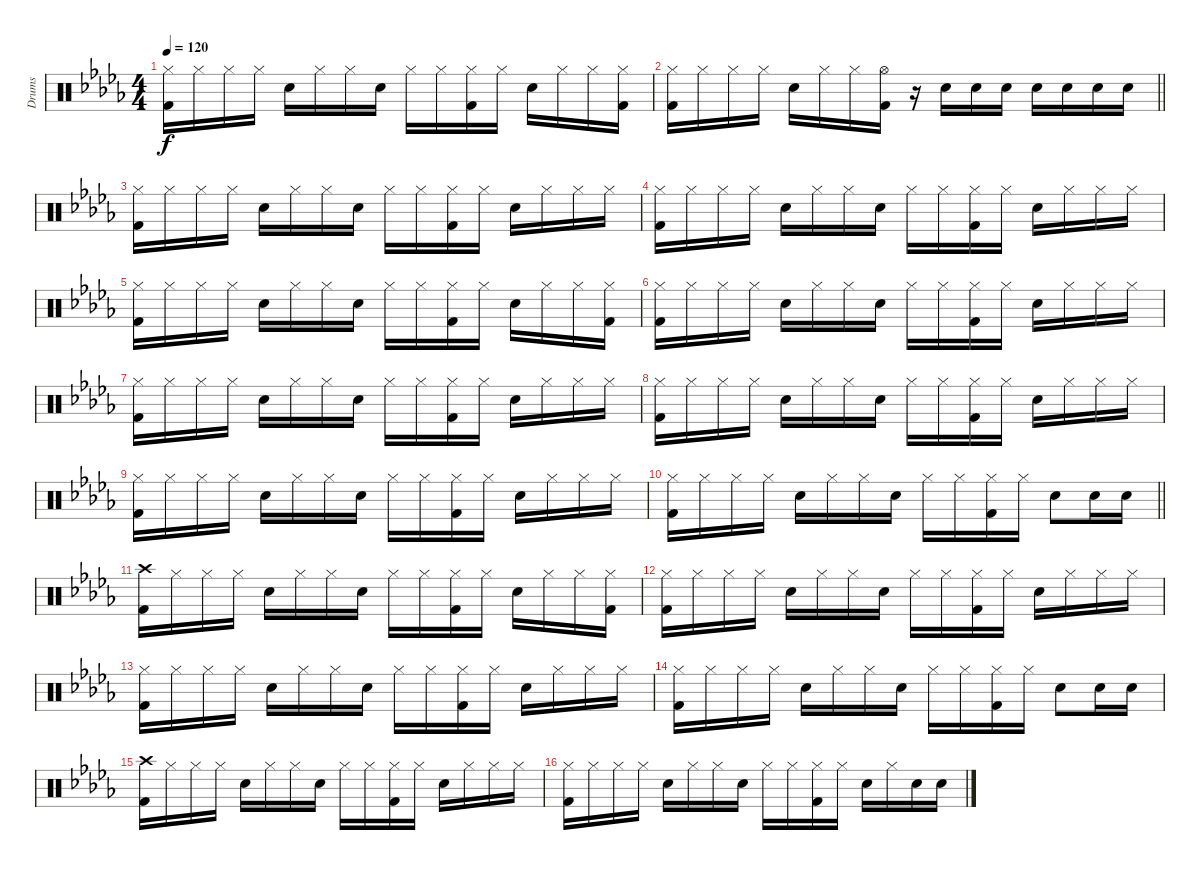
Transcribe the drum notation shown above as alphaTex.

\track ("Drums" "Drums") {instrument percussion}
\staff {score}
\articulation defaults
\ts (4 4)
\tempo 120
\clef neutral
\ks db
("Hi-Hat (closed)" "Kick (hit) 2").16{dy f} "Hi-Hat (closed)".16 "Hi-Hat (closed)".16 "Hi-Hat (closed)".16 "Snare (hit) 2".16 "Hi-Hat (closed)".16 "Hi-Hat (closed)".16 "Snare (hit) 2".16 "Hi-Hat (closed)".16 "Hi-Hat (closed)".16 ("Hi-Hat (closed)" "Kick (hit) 2").16 "Hi-Hat (closed)".16 "Snare (hit) 2".16 "Hi-Hat (closed)".16 "Hi-Hat (closed)".16 ("Hi-Hat (closed)" "Kick (hit) 2").16 |
\barLineRight lightlight
("Hi-Hat (closed)" "Kick (hit) 2").16 "Hi-Hat (closed)".16 "Hi-Hat (closed)".16 "Hi-Hat (closed)".16 "Snare (hit) 2".16 "Hi-Hat (closed)".16 "Hi-Hat (closed)".16 ("Hi-Hat (open)" "Kick (hit) 2").16 r.16 "Snare (hit) 2".16 "Snare (hit) 2".16 "Snare (hit) 2".16 "Snare (hit) 2".16 "Snare (hit) 2".16 "Snare (hit) 2".16 "Snare (hit) 2".16 |
("Hi-Hat (closed)" "Kick (hit) 2").16 "Hi-Hat (closed)".16 "Hi-Hat (closed)".16 "Hi-Hat (closed)".16 "Snare (hit) 2".16 "Hi-Hat (closed)".16 "Hi-Hat (closed)".16 "Snare (hit) 2".16 "Hi-Hat (closed)".16 "Hi-Hat (closed)".16 ("Hi-Hat (closed)" "Kick (hit) 2").16 "Hi-Hat (closed)".16 "Snare (hit) 2".16 "Hi-Hat (closed)".16 "Hi-Hat (closed)".16 "Hi-Hat (closed)".16 |
("Hi-Hat (closed)" "Kick (hit) 2").16 "Hi-Hat (closed)".16 "Hi-Hat (closed)".16 "Hi-Hat (closed)".16 "Snare (hit) 2".16 "Hi-Hat (closed)".16 "Hi-Hat (closed)".16 "Snare (hit) 2".16 "Hi-Hat (closed)".16 "Hi-Hat (closed)".16 ("Hi-Hat (closed)" "Kick (hit) 2").16 "Hi-Hat (closed)".16 "Snare (hit) 2".16 "Hi-Hat (closed)".16 "Hi-Hat (closed)".16 "Hi-Hat (closed)".16 |
("Hi-Hat (closed)" "Kick (hit) 2").16 "Hi-Hat (closed)".16 "Hi-Hat (closed)".16 "Hi-Hat (closed)".16 "Snare (hit) 2".16 "Hi-Hat (closed)".16 "Hi-Hat (closed)".16 "Snare (hit) 2".16 "Hi-Hat (closed)".16 "Hi-Hat (closed)".16 ("Hi-Hat (closed)" "Kick (hit) 2").16 "Hi-Hat (closed)".16 "Snare (hit) 2".16 "Hi-Hat (closed)".16 "Hi-Hat (closed)".16 ("Hi-Hat (closed)" "Kick (hit) 2").16 |
("Hi-Hat (closed)" "Kick (hit) 2").16 "Hi-Hat (closed)".16 "Hi-Hat (closed)".16 "Hi-Hat (closed)".16 "Snare (hit) 2".16 "Hi-Hat (closed)".16 "Hi-Hat (closed)".16 "Snare (hit) 2".16 "Hi-Hat (closed)".16 "Hi-Hat (closed)".16 ("Hi-Hat (closed)" "Kick (hit) 2").16 "Hi-Hat (closed)".16 "Snare (hit) 2".16 "Hi-Hat (closed)".16 "Hi-Hat (closed)".16 "Hi-Hat (closed)".16 |
("Hi-Hat (closed)" "Kick (hit) 2").16 "Hi-Hat (closed)".16 "Hi-Hat (closed)".16 "Hi-Hat (closed)".16 "Snare (hit) 2".16 "Hi-Hat (closed)".16 "Hi-Hat (closed)".16 "Snare (hit) 2".16 "Hi-Hat (closed)".16 "Hi-Hat (closed)".16 ("Hi-Hat (closed)" "Kick (hit) 2").16 "Hi-Hat (closed)".16 "Snare (hit) 2".16 "Hi-Hat (closed)".16 "Hi-Hat (closed)".16 "Hi-Hat (closed)".16 |
("Hi-Hat (closed)" "Kick (hit) 2").16 "Hi-Hat (closed)".16 "Hi-Hat (closed)".16 "Hi-Hat (closed)".16 "Snare (hit) 2".16 "Hi-Hat (closed)".16 "Hi-Hat (closed)".16 "Snare (hit) 2".16 "Hi-Hat (closed)".16 "Hi-Hat (closed)".16 ("Hi-Hat (closed)" "Kick (hit) 2").16 "Hi-Hat (closed)".16 "Snare (hit) 2".16 "Hi-Hat (closed)".16 "Hi-Hat (closed)".16 "Hi-Hat (closed)".16 |
("Hi-Hat (closed)" "Kick (hit) 2").16 "Hi-Hat (closed)".16 "Hi-Hat (closed)".16 "Hi-Hat (closed)".16 "Snare (hit) 2".16 "Hi-Hat (closed)".16 "Hi-Hat (closed)".16 "Snare (hit) 2".16 "Hi-Hat (closed)".16 "Hi-Hat (closed)".16 ("Hi-Hat (closed)" "Kick (hit) 2").16 "Hi-Hat (closed)".16 "Snare (hit) 2".16 "Hi-Hat (closed)".16 "Hi-Hat (closed)".16 "Hi-Hat (closed)".16 |
\barLineRight lightlight
("Hi-Hat (closed)" "Kick (hit) 2").16 "Hi-Hat (closed)".16 "Hi-Hat (closed)".16 "Hi-Hat (closed)".16 "Snare (hit) 2".16 "Hi-Hat (closed)".16 "Hi-Hat (closed)".16 "Snare (hit) 2".16 "Hi-Hat (closed)".16 "Hi-Hat (closed)".16 ("Hi-Hat (closed)" "Kick (hit) 2").16 "Hi-Hat (closed)".16 "Snare (hit) 2".8 "Snare (hit) 2".16 "Snare (hit) 2".16 |
("Crash high (hit)" "Kick (hit) 2").16 "Hi-Hat (closed)".16 "Hi-Hat (closed)".16 "Hi-Hat (closed)".16 "Snare (hit) 2".16 "Hi-Hat (closed)".16 "Hi-Hat (closed)".16 "Snare (hit) 2".16 "Hi-Hat (closed)".16 "Hi-Hat (closed)".16 ("Hi-Hat (closed)" "Kick (hit) 2").16 "Hi-Hat (closed)".16 "Snare (hit) 2".16 "Hi-Hat (closed)".16 "Hi-Hat (closed)".16 ("Hi-Hat (closed)" "Kick (hit) 2").16 |
("Hi-Hat (closed)" "Kick (hit) 2").16 "Hi-Hat (closed)".16 "Hi-Hat (closed)".16 "Hi-Hat (closed)".16 "Snare (hit) 2".16 "Hi-Hat (closed)".16 "Hi-Hat (closed)".16 "Snare (hit) 2".16 "Hi-Hat (closed)".16 "Hi-Hat (closed)".16 ("Hi-Hat (closed)" "Kick (hit) 2").16 "Hi-Hat (closed)".16 "Snare (hit) 2".16 "Hi-Hat (closed)".16 "Hi-Hat (closed)".16 "Hi-Hat (closed)".16 |
("Hi-Hat (closed)" "Kick (hit) 2").16 "Hi-Hat (closed)".16 "Hi-Hat (closed)".16 "Hi-Hat (closed)".16 "Snare (hit) 2".16 "Hi-Hat (closed)".16 "Hi-Hat (closed)".16 "Snare (hit) 2".16 "Hi-Hat (closed)".16 "Hi-Hat (closed)".16 ("Hi-Hat (closed)" "Kick (hit) 2").16 "Hi-Hat (closed)".16 "Snare (hit) 2".16 "Hi-Hat (closed)".16 "Hi-Hat (closed)".16 "Hi-Hat (closed)".16 |
("Hi-Hat (closed)" "Kick (hit) 2").16 "Hi-Hat (closed)".16 "Hi-Hat (closed)".16 "Hi-Hat (closed)".16 "Snare (hit) 2".16 "Hi-Hat (closed)".16 "Hi-Hat (closed)".16 "Snare (hit) 2".16 "Hi-Hat (closed)".16 "Hi-Hat (closed)".16 ("Hi-Hat (closed)" "Kick (hit) 2").16 "Hi-Hat (closed)".16 "Snare (hit) 2".8 "Snare (hit) 2".16 "Snare (hit) 2".16 |
("Crash high (hit)" "Kick (hit) 2").16 "Hi-Hat (closed)".16 "Hi-Hat (closed)".16 "Hi-Hat (closed)".16 "Snare (hit) 2".16 "Hi-Hat (closed)".16 "Hi-Hat (closed)".16 "Snare (hit) 2".16 "Hi-Hat (closed)".16 "Hi-Hat (closed)".16 ("Hi-Hat (closed)" "Kick (hit) 2").16 "Hi-Hat (closed)".16 "Snare (hit) 2".16 "Hi-Hat (closed)".16 "Hi-Hat (closed)".16 "Hi-Hat (closed)".16 |
("Hi-Hat (closed)" "Kick (hit) 2").16 "Hi-Hat (closed)".16 "Hi-Hat (closed)".16 "Hi-Hat (closed)".16 "Snare (hit) 2".16 "Hi-Hat (closed)".16 "Hi-Hat (closed)".16 "Snare (hit) 2".16 "Hi-Hat (closed)".16 "Hi-Hat (closed)".16 ("Hi-Hat (closed)" "Kick (hit) 2").16 "Hi-Hat (closed)".16 "Snare (hit) 2".16 "Hi-Hat (closed)".16 "Snare (hit) 2".16 "Snare (hit) 2".16
